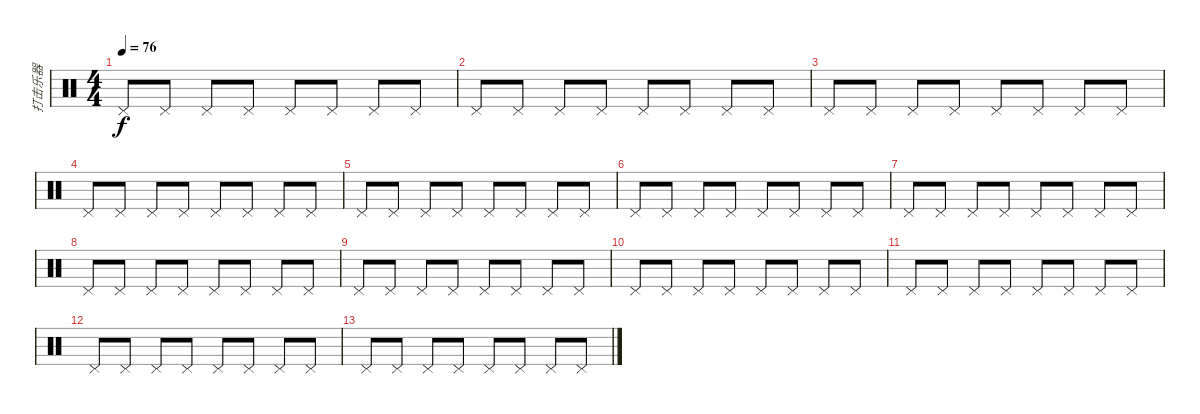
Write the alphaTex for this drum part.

\track ("打击乐器" "打击乐器") {instrument percussion}
\staff {score}
\articulation defaults
\ts (4 4)
\tempo 76
\clef neutral
\ks c "Pedal Hi-Hat (hit)".8{dy f} "Pedal Hi-Hat (hit)".8 "Pedal Hi-Hat (hit)".8 "Pedal Hi-Hat (hit)".8 "Pedal Hi-Hat (hit)".8 "Pedal Hi-Hat (hit)".8 "Pedal Hi-Hat (hit)".8 "Pedal Hi-Hat (hit)".8
|
"Pedal Hi-Hat (hit)".8 "Pedal Hi-Hat (hit)".8 "Pedal Hi-Hat (hit)".8 "Pedal Hi-Hat (hit)".8 "Pedal Hi-Hat (hit)".8 "Pedal Hi-Hat (hit)".8 "Pedal Hi-Hat (hit)".8 "Pedal Hi-Hat (hit)".8 |
"Pedal Hi-Hat (hit)".8 "Pedal Hi-Hat (hit)".8 "Pedal Hi-Hat (hit)".8 "Pedal Hi-Hat (hit)".8 "Pedal Hi-Hat (hit)".8 "Pedal Hi-Hat (hit)".8 "Pedal Hi-Hat (hit)".8 "Pedal Hi-Hat (hit)".8 |
"Pedal Hi-Hat (hit)".8 "Pedal Hi-Hat (hit)".8 "Pedal Hi-Hat (hit)".8 "Pedal Hi-Hat (hit)".8 "Pedal Hi-Hat (hit)".8 "Pedal Hi-Hat (hit)".8 "Pedal Hi-Hat (hit)".8 "Pedal Hi-Hat (hit)".8 |
"Pedal Hi-Hat (hit)".8 "Pedal Hi-Hat (hit)".8 "Pedal Hi-Hat (hit)".8 "Pedal Hi-Hat (hit)".8 "Pedal Hi-Hat (hit)".8 "Pedal Hi-Hat (hit)".8 "Pedal Hi-Hat (hit)".8 "Pedal Hi-Hat (hit)".8 |
"Pedal Hi-Hat (hit)".8 "Pedal Hi-Hat (hit)".8 "Pedal Hi-Hat (hit)".8 "Pedal Hi-Hat (hit)".8 "Pedal Hi-Hat (hit)".8 "Pedal Hi-Hat (hit)".8 "Pedal Hi-Hat (hit)".8 "Pedal Hi-Hat (hit)".8 |
"Pedal Hi-Hat (hit)".8 "Pedal Hi-Hat (hit)".8 "Pedal Hi-Hat (hit)".8 "Pedal Hi-Hat (hit)".8 "Pedal Hi-Hat (hit)".8 "Pedal Hi-Hat (hit)".8 "Pedal Hi-Hat (hit)".8 "Pedal Hi-Hat (hit)".8 |
"Pedal Hi-Hat (hit)".8 "Pedal Hi-Hat (hit)".8 "Pedal Hi-Hat (hit)".8 "Pedal Hi-Hat (hit)".8 "Pedal Hi-Hat (hit)".8 "Pedal Hi-Hat (hit)".8 "Pedal Hi-Hat (hit)".8 "Pedal Hi-Hat (hit)".8 |
"Pedal Hi-Hat (hit)".8 "Pedal Hi-Hat (hit)".8 "Pedal Hi-Hat (hit)".8 "Pedal Hi-Hat (hit)".8 "Pedal Hi-Hat (hit)".8 "Pedal Hi-Hat (hit)".8 "Pedal Hi-Hat (hit)".8 "Pedal Hi-Hat (hit)".8 |
"Pedal Hi-Hat (hit)".8 "Pedal Hi-Hat (hit)".8 "Pedal Hi-Hat (hit)".8 "Pedal Hi-Hat (hit)".8 "Pedal Hi-Hat (hit)".8 "Pedal Hi-Hat (hit)".8 "Pedal Hi-Hat (hit)".8 "Pedal Hi-Hat (hit)".8 |
"Pedal Hi-Hat (hit)".8 "Pedal Hi-Hat (hit)".8 "Pedal Hi-Hat (hit)".8 "Pedal Hi-Hat (hit)".8 "Pedal Hi-Hat (hit)".8 "Pedal Hi-Hat (hit)".8 "Pedal Hi-Hat (hit)".8 "Pedal Hi-Hat (hit)".8 |
"Pedal Hi-Hat (hit)".8 "Pedal Hi-Hat (hit)".8 "Pedal Hi-Hat (hit)".8 "Pedal Hi-Hat (hit)".8 "Pedal Hi-Hat (hit)".8 "Pedal Hi-Hat (hit)".8 "Pedal Hi-Hat (hit)".8 "Pedal Hi-Hat (hit)".8 |
"Pedal Hi-Hat (hit)".8 "Pedal Hi-Hat (hit)".8 "Pedal Hi-Hat (hit)".8 "Pedal Hi-Hat (hit)".8 "Pedal Hi-Hat (hit)".8 "Pedal Hi-Hat (hit)".8 "Pedal Hi-Hat (hit)".8 "Pedal Hi-Hat (hit)".8
